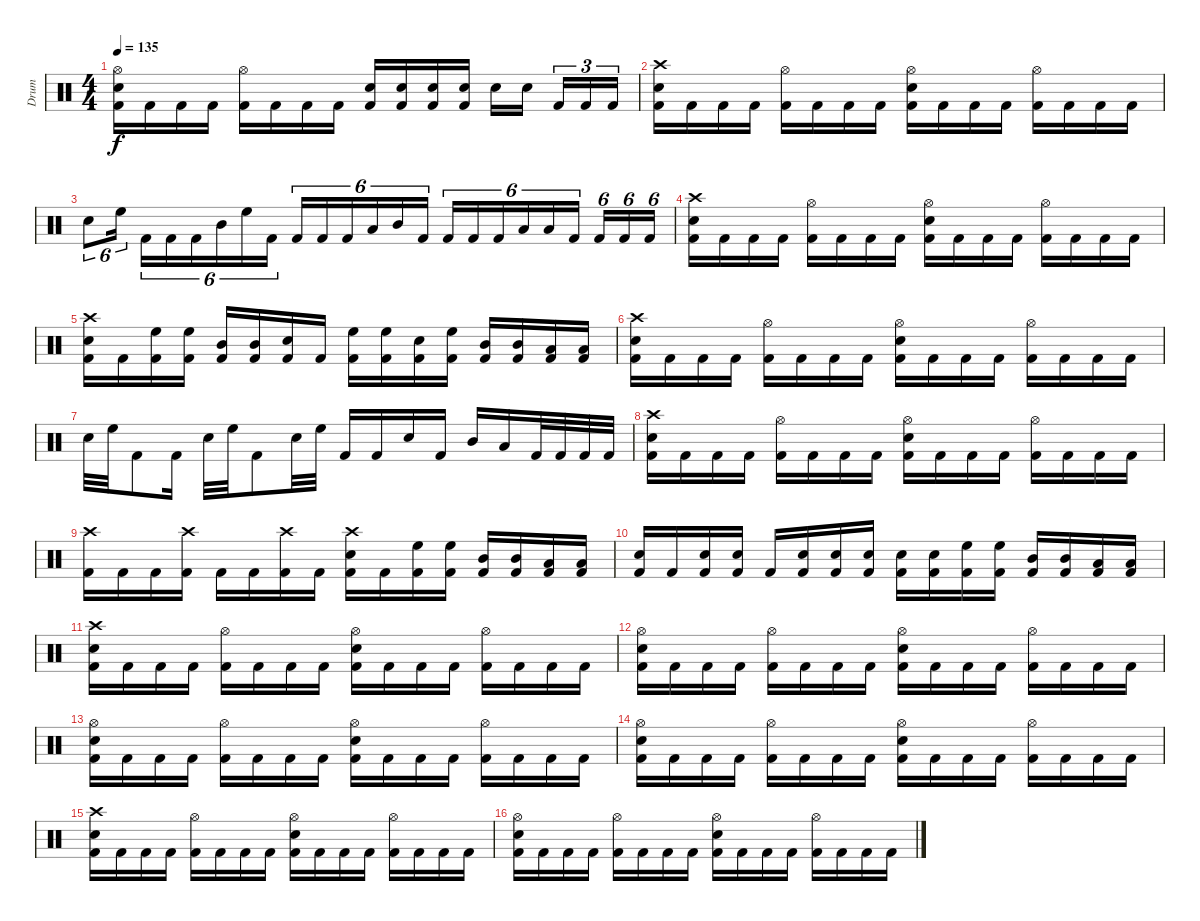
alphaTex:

\track ("Drum" "Drum") {instrument percussion}
\staff {score}
\articulation defaults
\ts (4 4)
\tempo 135
\clef neutral
\ks c
("Hi-Hat (open)" "Snare (hit) 2" "Kick (hit) 2").16{dy f} "Kick (hit) 2".16 "Kick (hit) 2".16 "Kick (hit) 2".16 ("Hi-Hat (open)" "Kick (hit) 2").16 "Kick (hit) 2".16 "Kick (hit) 2".16 "Kick (hit) 2".16 ("Snare (hit) 2" "Kick (hit) 2").16 ("Snare (hit) 2" "Kick (hit) 2").16 ("Snare (hit) 2" "Kick (hit) 2").16 ("Snare (hit) 2" "Kick (hit) 2").16 "Snare (hit) 2".16 "Snare (hit) 2".16 "Kick (hit) 2".16{tu (3 2)} "Kick (hit) 2".16{tu (3 2)} "Kick (hit) 2".16{tu (3 2)} |
("Crash high (hit)" "Snare (hit) 2" "Kick (hit) 2").16 "Kick (hit) 2".16 "Kick (hit) 2".16 "Kick (hit) 2".16 ("Hi-Hat (open)" "Kick (hit) 2").16 "Kick (hit) 2".16 "Kick (hit) 2".16 "Kick (hit) 2".16 ("Hi-Hat (open)" "Snare (hit) 2" "Kick (hit) 2").16 "Kick (hit) 2".16 "Kick (hit) 2".16 "Kick (hit) 2".16 ("Hi-Hat (open)" "Kick (hit) 2").16 "Kick (hit) 2".16 "Kick (hit) 2".16 "Kick (hit) 2".16 |
"Snare (hit) 2".8{tu (6 4)} "High Floor Tom (hit)".16{tu (6 4)} "Kick (hit) 2".16{tu (6 4)} "Kick (hit) 2".16{tu (6 4)} "Kick (hit) 2".16{tu (6 4)} "Mid Tom (hit)".16{tu (6 4)} "High Floor Tom (hit)".16{tu (6 4)} "Kick (hit) 2".16{tu (6 4)} "Kick (hit) 2".16{tu (6 4)} "Kick (hit) 2".16{tu (6 4)} "Kick (hit) 2".16{tu (6 4)} "Low Tom (hit)".16{tu (6 4)} "Mid Tom (hit)".16{tu (6 4)} "Kick (hit) 2".16{tu (6 4)} "Kick (hit) 2".16{tu (6 4)} "Kick (hit) 2".16{tu (6 4)} "Kick (hit) 2".16{tu (6 4)} "Low Floor Tom (hit)".16{tu (6 4)} "Low Tom (hit)".16{tu (6 4)} "Kick (hit) 2".16{tu (6 4)} "Kick (hit) 2".16{tu (6 4)} "Kick (hit) 2".16{tu (6 4)} "Kick (hit) 2".16{tu (6 4)} |
("Crash high (hit)" "Snare (hit) 2" "Kick (hit) 2").16 "Kick (hit) 2".16 "Kick (hit) 2".16 "Kick (hit) 2".16 ("Hi-Hat (open)" "Kick (hit) 2").16 "Kick (hit) 2".16 "Kick (hit) 2".16 "Kick (hit) 2".16 ("Hi-Hat (open)" "Snare (hit) 2" "Kick (hit) 2").16 "Kick (hit) 2".16 "Kick (hit) 2".16 "Kick (hit) 2".16 ("Hi-Hat (open)" "Kick (hit) 2").16 "Kick (hit) 2".16 "Kick (hit) 2".16 "Kick (hit) 2".16 |
("Crash high (hit)" "Snare (hit) 2" "Kick (hit) 2").16 "Kick (hit) 2".16 ("High Floor Tom (hit)" "Kick (hit) 2").16 ("High Floor Tom (hit)" "Kick (hit) 2").16 ("Mid Tom (hit)" "Kick (hit) 2").16 ("Mid Tom (hit)" "Kick (hit) 2").16 ("Snare (hit) 2" "Kick (hit) 2").16 "Kick (hit) 2".16 ("High Floor Tom (hit)" "Kick (hit) 2").16 ("High Floor Tom (hit)" "Kick (hit) 2").16 ("Snare (hit) 2" "Kick (hit) 2").16 ("High Floor Tom (hit)" "Kick (hit) 2").16 ("Mid Tom (hit)" "Kick (hit) 2").16 ("Mid Tom (hit)" "Kick (hit) 2").16 ("Low Tom (hit)" "Kick (hit) 2").16 ("Low Tom (hit)" "Kick (hit) 2").16 |
("Crash high (hit)" "Snare (hit) 2" "Kick (hit) 2").16 "Kick (hit) 2".16 "Kick (hit) 2".16 "Kick (hit) 2".16 ("Hi-Hat (open)" "Kick (hit) 2").16 "Kick (hit) 2".16 "Kick (hit) 2".16 "Kick (hit) 2".16 ("Hi-Hat (open)" "Snare (hit) 2" "Kick (hit) 2").16 "Kick (hit) 2".16 "Kick (hit) 2".16 "Kick (hit) 2".16 ("Hi-Hat (open)" "Kick (hit) 2").16 "Kick (hit) 2".16 "Kick (hit) 2".16 "Kick (hit) 2".16 |
"Snare (hit) 2".32 "High Floor Tom (hit)".32 "Kick (hit) 2".8 "Kick (hit) 2".16 "Snare (hit) 2".32 "High Floor Tom (hit)".32 "Kick (hit) 2".8 "Snare (hit) 2".32 "High Floor Tom (hit)".32 "Kick (hit) 2".16 "Kick (hit) 2".16 "Snare (hit) 2".16 "Kick (hit) 2".16 "Mid Tom (hit)".16 "Low Tom (hit)".16 "Kick (hit) 2".32 "Kick (hit) 2".32 "Kick (hit) 2".32 "Kick (hit) 2".32 |
("Crash high (hit)" "Snare (hit) 2" "Kick (hit) 2").16 "Kick (hit) 2".16 "Kick (hit) 2".16 "Kick (hit) 2".16 ("Hi-Hat (open)" "Kick (hit) 2").16 "Kick (hit) 2".16 "Kick (hit) 2".16 "Kick (hit) 2".16 ("Hi-Hat (open)" "Snare (hit) 2" "Kick (hit) 2").16 "Kick (hit) 2".16 "Kick (hit) 2".16 "Kick (hit) 2".16 ("Hi-Hat (open)" "Kick (hit) 2").16 "Kick (hit) 2".16 "Kick (hit) 2".16 "Kick (hit) 2".16 |
("Crash high (hit)" "Kick (hit) 2").16 "Kick (hit) 2".16 "Kick (hit) 2".16 ("Crash high (hit)" "Kick (hit) 2").16 "Kick (hit) 2".16 "Kick (hit) 2".16 ("Crash high (hit)" "Kick (hit) 2").16 "Kick (hit) 2".16 ("Crash high (hit)" "Snare (hit) 2" "Kick (hit) 2").16 "Kick (hit) 2".16 ("High Floor Tom (hit)" "Kick (hit) 2").16 ("High Floor Tom (hit)" "Kick (hit) 2").16 ("Mid Tom (hit)" "Kick (hit) 2").16 ("Mid Tom (hit)" "Kick (hit) 2").16 ("Low Tom (hit)" "Kick (hit) 2").16 ("Low Tom (hit)" "Kick (hit) 2").16 |
("Snare (hit) 2" "Kick (hit) 2").16 "Kick (hit) 2".16 ("Snare (hit) 2" "Kick (hit) 2").16 ("Snare (hit) 2" "Kick (hit) 2").16 "Kick (hit) 2".16 ("Snare (hit) 2" "Kick (hit) 2").16 ("Snare (hit) 2" "Kick (hit) 2").16 ("Snare (hit) 2" "Kick (hit) 2").16 ("Snare (hit) 2" "Kick (hit) 2").16 ("Snare (hit) 2" "Kick (hit) 2").16 ("High Floor Tom (hit)" "Kick (hit) 2").16 ("High Floor Tom (hit)" "Kick (hit) 2").16 ("Mid Tom (hit)" "Kick (hit) 2").16 ("Mid Tom (hit)" "Kick (hit) 2").16 ("Low Tom (hit)" "Kick (hit) 2").16 ("Low Tom (hit)" "Kick (hit) 2").16 |
("Crash high (hit)" "Snare (hit) 2" "Kick (hit) 2").16 "Kick (hit) 2".16 "Kick (hit) 2".16 "Kick (hit) 2".16 ("Hi-Hat (open)" "Kick (hit) 2").16 "Kick (hit) 2".16 "Kick (hit) 2".16 "Kick (hit) 2".16 ("Hi-Hat (open)" "Snare (hit) 2" "Kick (hit) 2").16 "Kick (hit) 2".16 "Kick (hit) 2".16 "Kick (hit) 2".16 ("Hi-Hat (open)" "Kick (hit) 2").16 "Kick (hit) 2".16 "Kick (hit) 2".16 "Kick (hit) 2".16 |
("Hi-Hat (open)" "Snare (hit) 2" "Kick (hit) 2").16 "Kick (hit) 2".16 "Kick (hit) 2".16 "Kick (hit) 2".16 ("Hi-Hat (open)" "Kick (hit) 2").16 "Kick (hit) 2".16 "Kick (hit) 2".16 "Kick (hit) 2".16 ("Hi-Hat (open)" "Snare (hit) 2" "Kick (hit) 2").16 "Kick (hit) 2".16 "Kick (hit) 2".16 "Kick (hit) 2".16 ("Hi-Hat (open)" "Kick (hit) 2").16 "Kick (hit) 2".16 "Kick (hit) 2".16 "Kick (hit) 2".16 |
("Hi-Hat (open)" "Snare (hit) 2" "Kick (hit) 2").16 "Kick (hit) 2".16 "Kick (hit) 2".16 "Kick (hit) 2".16 ("Hi-Hat (open)" "Kick (hit) 2").16 "Kick (hit) 2".16 "Kick (hit) 2".16 "Kick (hit) 2".16 ("Hi-Hat (open)" "Snare (hit) 2" "Kick (hit) 2").16 "Kick (hit) 2".16 "Kick (hit) 2".16 "Kick (hit) 2".16 ("Hi-Hat (open)" "Kick (hit) 2").16 "Kick (hit) 2".16 "Kick (hit) 2".16 "Kick (hit) 2".16 |
("Hi-Hat (open)" "Snare (hit) 2" "Kick (hit) 2").16 "Kick (hit) 2".16 "Kick (hit) 2".16 "Kick (hit) 2".16 ("Hi-Hat (open)" "Kick (hit) 2").16 "Kick (hit) 2".16 "Kick (hit) 2".16 "Kick (hit) 2".16 ("Hi-Hat (open)" "Snare (hit) 2" "Kick (hit) 2").16 "Kick (hit) 2".16 "Kick (hit) 2".16 "Kick (hit) 2".16 ("Hi-Hat (open)" "Kick (hit) 2").16 "Kick (hit) 2".16 "Kick (hit) 2".16 "Kick (hit) 2".16 |
("Crash high (hit)" "Snare (hit) 2" "Kick (hit) 2").16 "Kick (hit) 2".16 "Kick (hit) 2".16 "Kick (hit) 2".16 ("Hi-Hat (open)" "Kick (hit) 2").16 "Kick (hit) 2".16 "Kick (hit) 2".16 "Kick (hit) 2".16 ("Hi-Hat (open)" "Snare (hit) 2" "Kick (hit) 2").16 "Kick (hit) 2".16 "Kick (hit) 2".16 "Kick (hit) 2".16 ("Hi-Hat (open)" "Kick (hit) 2").16 "Kick (hit) 2".16 "Kick (hit) 2".16 "Kick (hit) 2".16 |
("Hi-Hat (open)" "Snare (hit) 2" "Kick (hit) 2").16 "Kick (hit) 2".16 "Kick (hit) 2".16 "Kick (hit) 2".16 ("Hi-Hat (open)" "Kick (hit) 2").16 "Kick (hit) 2".16 "Kick (hit) 2".16 "Kick (hit) 2".16 ("Hi-Hat (open)" "Snare (hit) 2" "Kick (hit) 2").16 "Kick (hit) 2".16 "Kick (hit) 2".16 "Kick (hit) 2".16 ("Hi-Hat (open)" "Kick (hit) 2").16 "Kick (hit) 2".16 "Kick (hit) 2".16 "Kick (hit) 2".16
